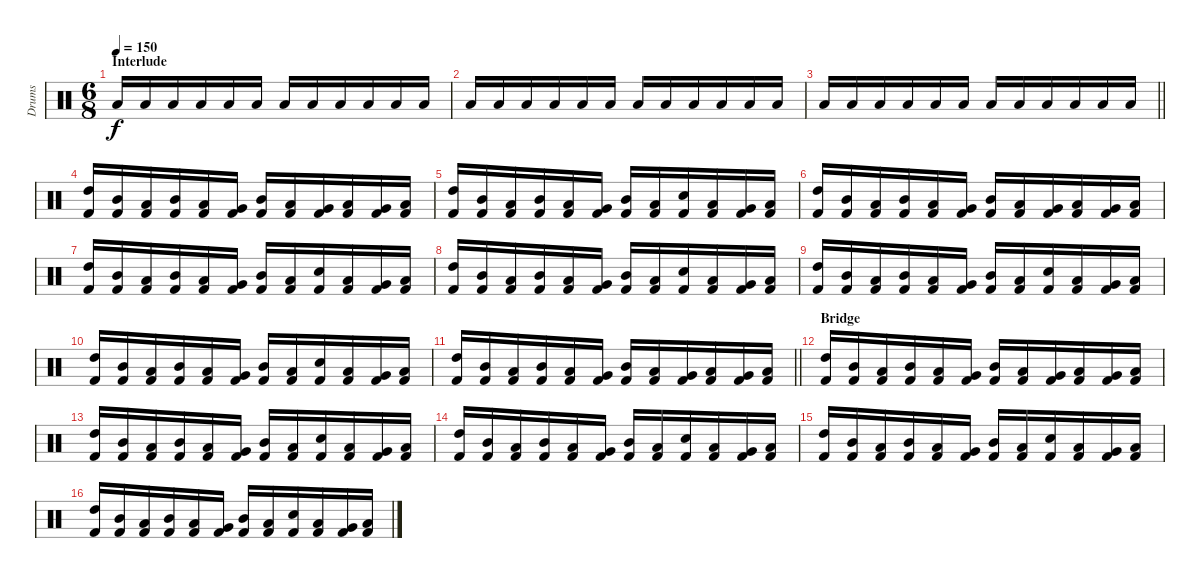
\track ("Drums" "Drums") {instrument percussion}
\staff {score}
\articulation defaults
\ts (6 8)
\section ("" "Interlude")
\tempo 153
\tempo 150
\clef neutral
\ks c "Low Floor Tom (hit)".16{dy f} "Low Floor Tom (hit)".16 "Low Floor Tom (hit)".16 "Low Floor Tom (hit)".16 "Low Floor Tom (hit)".16 "Low Floor Tom (hit)".16 "Low Floor Tom (hit)".16 "Low Floor Tom (hit)".16 "Low Floor Tom (hit)".16 "Low Floor Tom (hit)".16 "Low Floor Tom (hit)".16 "Low Floor Tom (hit)".16
|
"Low Floor Tom (hit)".16 "Low Floor Tom (hit)".16 "Low Floor Tom (hit)".16 "Low Floor Tom (hit)".16 "Low Floor Tom (hit)".16 "Low Floor Tom (hit)".16 "Low Floor Tom (hit)".16 "Low Floor Tom (hit)".16 "Low Floor Tom (hit)".16 "Low Floor Tom (hit)".16 "Low Floor Tom (hit)".16 "Low Floor Tom (hit)".16 |
\barLineRight lightlight "Low Floor Tom (hit)".16 "Low Floor Tom (hit)".16 "Low Floor Tom (hit)".16 "Low Floor Tom (hit)".16 "Low Floor Tom (hit)".16 "Low Floor Tom (hit)".16 "Low Floor Tom (hit)".16 "Low Floor Tom (hit)".16 "Low Floor Tom (hit)".16 "Low Floor Tom (hit)".16 "Low Floor Tom (hit)".16 "Low Floor Tom (hit)".16
|
("High Tom (hit)" "Kick (hit) 2").16 ("Mid Tom (hit)" "Kick (hit) 2").16 ("Low Tom (hit)" "Kick (hit) 2").16 ("Mid Tom (hit)" "Kick (hit) 2").16 ("Low Tom (hit)" "Kick (hit) 2").16 ("Very Low Tom (hit)" "Kick (hit) 2").16 ("Mid Tom (hit)" "Kick (hit) 2").16 ("Low Tom (hit)" "Kick (hit) 2").16 ("Very Low Tom (hit)" "Kick (hit) 2").16 ("Low Tom (hit)" "Kick (hit) 2").16 ("Very Low Tom (hit)" "Kick (hit) 2").16 ("Low Floor Tom (hit)" "Kick (hit) 2").16 |
("High Tom (hit)" "Kick (hit) 2").16 ("Mid Tom (hit)" "Kick (hit) 2").16 ("Low Tom (hit)" "Kick (hit) 2").16 ("Mid Tom (hit)" "Kick (hit) 2").16 ("Low Tom (hit)" "Kick (hit) 2").16 ("Very Low Tom (hit)" "Kick (hit) 2").16 ("Mid Tom (hit)" "Kick (hit) 2").16 ("Low Tom (hit)" "Kick (hit) 2").16 ("Electric Snare (hit)" "Kick (hit) 2").16 ("Low Tom (hit)" "Kick (hit) 2").16 ("Very Low Tom (hit)" "Kick (hit) 2").16 ("Low Floor Tom (hit)" "Kick (hit) 2").16 |
("High Tom (hit)" "Kick (hit) 2").16 ("Mid Tom (hit)" "Kick (hit) 2").16 ("Low Tom (hit)" "Kick (hit) 2").16 ("Mid Tom (hit)" "Kick (hit) 2").16 ("Low Tom (hit)" "Kick (hit) 2").16 ("Very Low Tom (hit)" "Kick (hit) 2").16 ("Mid Tom (hit)" "Kick (hit) 2").16 ("Low Tom (hit)" "Kick (hit) 2").16 ("Very Low Tom (hit)" "Kick (hit) 2").16 ("Low Tom (hit)" "Kick (hit) 2").16 ("Very Low Tom (hit)" "Kick (hit) 2").16 ("Low Floor Tom (hit)" "Kick (hit) 2").16 |
("High Tom (hit)" "Kick (hit) 2").16 ("Mid Tom (hit)" "Kick (hit) 2").16 ("Low Tom (hit)" "Kick (hit) 2").16 ("Mid Tom (hit)" "Kick (hit) 2").16 ("Low Tom (hit)" "Kick (hit) 2").16 ("Very Low Tom (hit)" "Kick (hit) 2").16 ("Mid Tom (hit)" "Kick (hit) 2").16 ("Low Tom (hit)" "Kick (hit) 2").16 ("Electric Snare (hit)" "Kick (hit) 2").16 ("Low Tom (hit)" "Kick (hit) 2").16 ("Very Low Tom (hit)" "Kick (hit) 2").16 ("Low Floor Tom (hit)" "Kick (hit) 2").16 |
("High Tom (hit)" "Kick (hit) 2").16 ("Mid Tom (hit)" "Kick (hit) 2").16 ("Low Tom (hit)" "Kick (hit) 2").16 ("Mid Tom (hit)" "Kick (hit) 2").16 ("Low Tom (hit)" "Kick (hit) 2").16 ("Very Low Tom (hit)" "Kick (hit) 2").16 ("Mid Tom (hit)" "Kick (hit) 2").16 ("Low Tom (hit)" "Kick (hit) 2").16 ("Electric Snare (hit)" "Kick (hit) 2").16 ("Low Tom (hit)" "Kick (hit) 2").16 ("Very Low Tom (hit)" "Kick (hit) 2").16 ("Low Floor Tom (hit)" "Kick (hit) 2").16 |
("High Tom (hit)" "Kick (hit) 2").16 ("Mid Tom (hit)" "Kick (hit) 2").16 ("Low Tom (hit)" "Kick (hit) 2").16 ("Mid Tom (hit)" "Kick (hit) 2").16 ("Low Tom (hit)" "Kick (hit) 2").16 ("Very Low Tom (hit)" "Kick (hit) 2").16 ("Mid Tom (hit)" "Kick (hit) 2").16 ("Low Tom (hit)" "Kick (hit) 2").16 ("Electric Snare (hit)" "Kick (hit) 2").16 ("Low Tom (hit)" "Kick (hit) 2").16 ("Very Low Tom (hit)" "Kick (hit) 2").16 ("Low Floor Tom (hit)" "Kick (hit) 2").16 |
("High Tom (hit)" "Kick (hit) 2").16 ("Mid Tom (hit)" "Kick (hit) 2").16 ("Low Tom (hit)" "Kick (hit) 2").16 ("Mid Tom (hit)" "Kick (hit) 2").16 ("Low Tom (hit)" "Kick (hit) 2").16 ("Very Low Tom (hit)" "Kick (hit) 2").16 ("Mid Tom (hit)" "Kick (hit) 2").16 ("Low Tom (hit)" "Kick (hit) 2").16 ("Electric Snare (hit)" "Kick (hit) 2").16 ("Low Tom (hit)" "Kick (hit) 2").16 ("Very Low Tom (hit)" "Kick (hit) 2").16 ("Low Floor Tom (hit)" "Kick (hit) 2").16 |
\barLineRight lightlight
("High Tom (hit)" "Kick (hit) 2").16 ("Mid Tom (hit)" "Kick (hit) 2").16 ("Low Tom (hit)" "Kick (hit) 2").16 ("Mid Tom (hit)" "Kick (hit) 2").16 ("Low Tom (hit)" "Kick (hit) 2").16 ("Very Low Tom (hit)" "Kick (hit) 2").16 ("Mid Tom (hit)" "Kick (hit) 2").16 ("Low Tom (hit)" "Kick (hit) 2").16 ("Very Low Tom (hit)" "Kick (hit) 2").16 ("Low Tom (hit)" "Kick (hit) 2").16 ("Very Low Tom (hit)" "Kick (hit) 2").16 ("Low Floor Tom (hit)" "Kick (hit) 2").16 |
\section ("" "Bridge")
("High Tom (hit)" "Kick (hit) 2").16 ("Mid Tom (hit)" "Kick (hit) 2").16 ("Low Tom (hit)" "Kick (hit) 2").16 ("Mid Tom (hit)" "Kick (hit) 2").16 ("Low Tom (hit)" "Kick (hit) 2").16 ("Very Low Tom (hit)" "Kick (hit) 2").16 ("Mid Tom (hit)" "Kick (hit) 2").16 ("Low Tom (hit)" "Kick (hit) 2").16 ("Very Low Tom (hit)" "Kick (hit) 2").16 ("Low Tom (hit)" "Kick (hit) 2").16 ("Very Low Tom (hit)" "Kick (hit) 2").16 ("Low Floor Tom (hit)" "Kick (hit) 2").16 |
("High Tom (hit)" "Kick (hit) 2").16 ("Mid Tom (hit)" "Kick (hit) 2").16 ("Low Tom (hit)" "Kick (hit) 2").16 ("Mid Tom (hit)" "Kick (hit) 2").16 ("Low Tom (hit)" "Kick (hit) 2").16 ("Very Low Tom (hit)" "Kick (hit) 2").16 ("Mid Tom (hit)" "Kick (hit) 2").16 ("Low Tom (hit)" "Kick (hit) 2").16 ("Electric Snare (hit)" "Kick (hit) 2").16 ("Low Tom (hit)" "Kick (hit) 2").16 ("Very Low Tom (hit)" "Kick (hit) 2").16 ("Low Floor Tom (hit)" "Kick (hit) 2").16 |
("High Tom (hit)" "Kick (hit) 2").16 ("Mid Tom (hit)" "Kick (hit) 2").16 ("Low Tom (hit)" "Kick (hit) 2").16 ("Mid Tom (hit)" "Kick (hit) 2").16 ("Low Tom (hit)" "Kick (hit) 2").16 ("Very Low Tom (hit)" "Kick (hit) 2").16 ("Mid Tom (hit)" "Kick (hit) 2").16 ("Low Tom (hit)" "Kick (hit) 2").16 ("Electric Snare (hit)" "Kick (hit) 2").16 ("Low Tom (hit)" "Kick (hit) 2").16 ("Very Low Tom (hit)" "Kick (hit) 2").16 ("Low Floor Tom (hit)" "Kick (hit) 2").16 |
("High Tom (hit)" "Kick (hit) 2").16 ("Mid Tom (hit)" "Kick (hit) 2").16 ("Low Tom (hit)" "Kick (hit) 2").16 ("Mid Tom (hit)" "Kick (hit) 2").16 ("Low Tom (hit)" "Kick (hit) 2").16 ("Very Low Tom (hit)" "Kick (hit) 2").16 ("Mid Tom (hit)" "Kick (hit) 2").16 ("Low Tom (hit)" "Kick (hit) 2").16 ("Electric Snare (hit)" "Kick (hit) 2").16 ("Low Tom (hit)" "Kick (hit) 2").16 ("Very Low Tom (hit)" "Kick (hit) 2").16 ("Low Floor Tom (hit)" "Kick (hit) 2").16 |
("High Tom (hit)" "Kick (hit) 2").16 ("Mid Tom (hit)" "Kick (hit) 2").16 ("Low Tom (hit)" "Kick (hit) 2").16 ("Mid Tom (hit)" "Kick (hit) 2").16 ("Low Tom (hit)" "Kick (hit) 2").16 ("Very Low Tom (hit)" "Kick (hit) 2").16 ("Mid Tom (hit)" "Kick (hit) 2").16 ("Low Tom (hit)" "Kick (hit) 2").16 ("Electric Snare (hit)" "Kick (hit) 2").16 ("Low Tom (hit)" "Kick (hit) 2").16 ("Very Low Tom (hit)" "Kick (hit) 2").16 ("Low Floor Tom (hit)" "Kick (hit) 2").16
